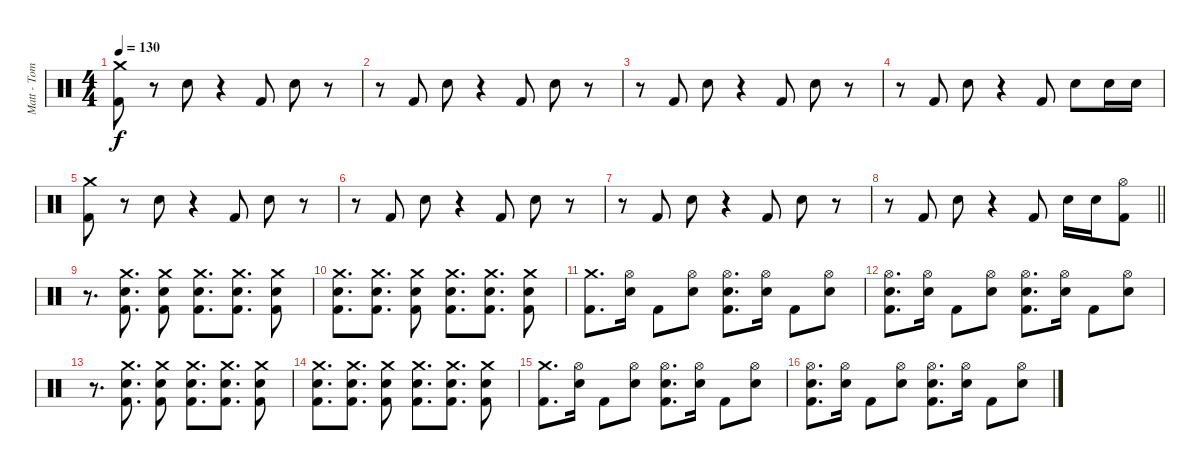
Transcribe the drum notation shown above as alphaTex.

\track ("Matt - Tom" "Matt - Tom") {instrument percussion}
\staff {score}
\articulation defaults
\ts (4 4)
\tempo 130
\clef neutral
\ks c
("Crash medium (hit)" "Kick (hit) 2").8{dy f} r.8 "Electric Snare (hit)".8 r.4 "Kick (hit) 2".8 "Electric Snare (hit)".8 r.8 |
r.8 "Kick (hit) 2".8 "Electric Snare (hit)".8 r.4 "Kick (hit) 2".8 "Electric Snare (hit)".8 r.8 |
r.8 "Kick (hit) 2".8 "Electric Snare (hit)".8 r.4 "Kick (hit) 2".8 "Electric Snare (hit)".8 r.8 |
r.8 "Kick (hit) 2".8 "Electric Snare (hit)".8 r.4 "Kick (hit) 2".8 "Electric Snare (hit)".8 "Electric Snare (hit)".16 "Electric Snare (hit)".16 |
("Crash medium (hit)" "Kick (hit) 2").8 r.8 "Electric Snare (hit)".8 r.4 "Kick (hit) 2".8 "Electric Snare (hit)".8 r.8 |
r.8 "Kick (hit) 2".8 "Electric Snare (hit)".8 r.4 "Kick (hit) 2".8 "Electric Snare (hit)".8 r.8 |
r.8 "Kick (hit) 2".8 "Electric Snare (hit)".8 r.4 "Kick (hit) 2".8 "Electric Snare (hit)".8 r.8 |
\barLineRight lightlight
r.8 "Kick (hit) 2".8 "Electric Snare (hit)".8 r.4 "Kick (hit) 2".8 "Electric Snare (hit)".16 "Electric Snare (hit)".16 ("Hi-Hat (open)" "Kick (hit) 2").8 |
r.8{d} ("Crash medium (hit)" "Electric Snare (hit)" "Kick (hit) 2").8{d} ("Crash medium (hit)" "Electric Snare (hit)" "Kick (hit) 2").8 ("Crash medium (hit)" "Electric Snare (hit)" "Kick (hit) 2").8{d} ("Crash medium (hit)" "Electric Snare (hit)" "Kick (hit) 2").8{d} ("Crash medium (hit)" "Electric Snare (hit)" "Kick (hit) 2").8 |
("Crash medium (hit)" "Electric Snare (hit)" "Kick (hit) 2").8{d} ("Crash medium (hit)" "Electric Snare (hit)" "Kick (hit) 2").8{d} ("Crash medium (hit)" "Electric Snare (hit)" "Kick (hit) 2").8 ("Crash medium (hit)" "Electric Snare (hit)" "Kick (hit) 2").8{d} ("Crash medium (hit)" "Electric Snare (hit)" "Kick (hit) 2").8{d} ("Crash medium (hit)" "Electric Snare (hit)" "Kick (hit) 2").8 |
("Crash medium (hit)" "Kick (hit) 2").8{d} ("Hi-Hat (open)" "Electric Snare (hit)").16 "Kick (hit) 2".8 ("Hi-Hat (open)" "Electric Snare (hit)").8 ("Hi-Hat (open)" "Electric Snare (hit)" "Kick (hit) 2").8{d} ("Hi-Hat (open)" "Electric Snare (hit)").16 "Kick (hit) 2".8 ("Hi-Hat (open)" "Electric Snare (hit)").8 |
("Hi-Hat (open)" "Electric Snare (hit)" "Kick (hit) 2").8{d} ("Hi-Hat (open)" "Electric Snare (hit)").16 "Kick (hit) 2".8 ("Hi-Hat (open)" "Electric Snare (hit)").8 ("Hi-Hat (open)" "Electric Snare (hit)" "Kick (hit) 2").8{d} ("Hi-Hat (open)" "Electric Snare (hit)").16 "Kick (hit) 2".8 ("Hi-Hat (open)" "Electric Snare (hit)").8 |
r.8{d} ("Crash medium (hit)" "Electric Snare (hit)" "Kick (hit) 2").8{d} ("Crash medium (hit)" "Electric Snare (hit)" "Kick (hit) 2").8 ("Crash medium (hit)" "Electric Snare (hit)" "Kick (hit) 2").8{d} ("Crash medium (hit)" "Electric Snare (hit)" "Kick (hit) 2").8{d} ("Crash medium (hit)" "Electric Snare (hit)" "Kick (hit) 2").8 |
("Crash medium (hit)" "Electric Snare (hit)" "Kick (hit) 2").8{d} ("Crash medium (hit)" "Electric Snare (hit)" "Kick (hit) 2").8{d} ("Crash medium (hit)" "Electric Snare (hit)" "Kick (hit) 2").8 ("Crash medium (hit)" "Electric Snare (hit)" "Kick (hit) 2").8{d} ("Crash medium (hit)" "Electric Snare (hit)" "Kick (hit) 2").8{d} ("Crash medium (hit)" "Electric Snare (hit)" "Kick (hit) 2").8 |
("Crash medium (hit)" "Kick (hit) 2").8{d} ("Hi-Hat (open)" "Electric Snare (hit)").16 "Kick (hit) 2".8 ("Hi-Hat (open)" "Electric Snare (hit)").8 ("Hi-Hat (open)" "Electric Snare (hit)" "Kick (hit) 2").8{d} ("Hi-Hat (open)" "Electric Snare (hit)").16 "Kick (hit) 2".8 ("Hi-Hat (open)" "Electric Snare (hit)").8 |
("Hi-Hat (open)" "Electric Snare (hit)" "Kick (hit) 2").8{d} ("Hi-Hat (open)" "Electric Snare (hit)").16 "Kick (hit) 2".8 ("Hi-Hat (open)" "Electric Snare (hit)").8 ("Hi-Hat (open)" "Electric Snare (hit)" "Kick (hit) 2").8{d} ("Hi-Hat (open)" "Electric Snare (hit)").16 "Kick (hit) 2".8 ("Hi-Hat (open)" "Electric Snare (hit)").8
